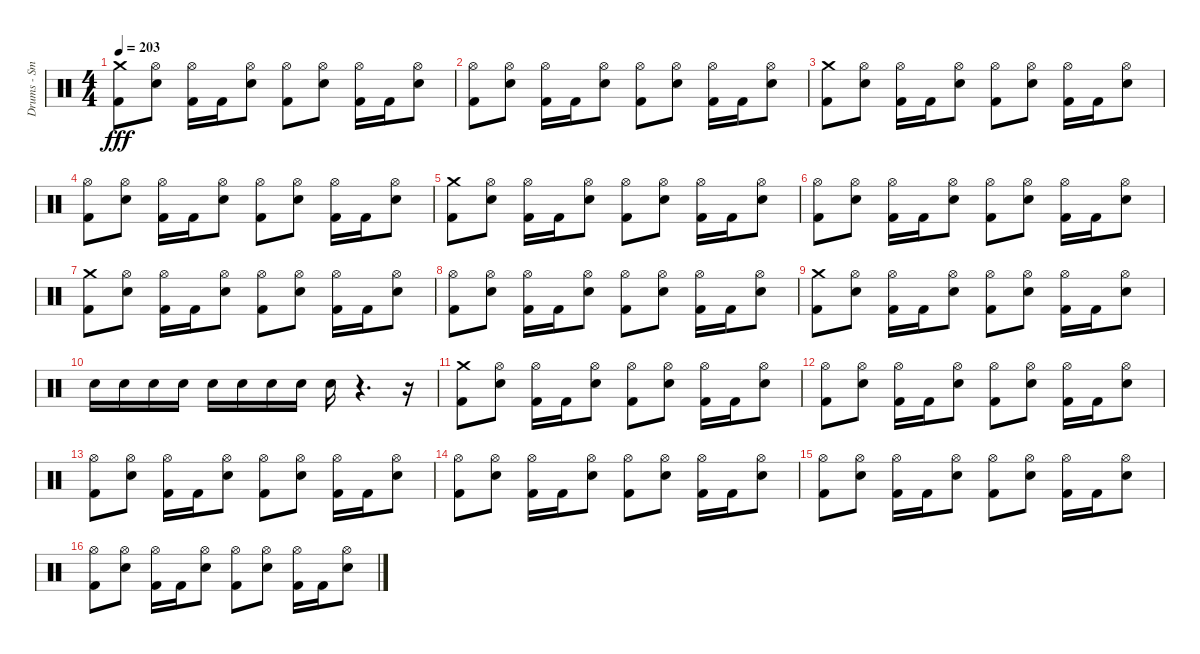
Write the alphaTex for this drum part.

\track ("Drums - Smelly" "Drums - Sm") {instrument percussion}
\staff {score}
\articulation defaults
\ts (4 4)
\tempo 203
\clef neutral
\ks c
("Kick (hit) 2" "Crash medium (hit)").8{dy fff} ("Electric Snare (hit)" "Hi-Hat (open)").8 ("Kick (hit) 2" "Hi-Hat (open)").16 "Kick (hit) 2".16 ("Electric Snare (hit)" "Hi-Hat (open)").8 ("Kick (hit) 2" "Hi-Hat (open)").8 ("Electric Snare (hit)" "Hi-Hat (open)").8 ("Kick (hit) 2" "Hi-Hat (open)").16 "Kick (hit) 2".16 ("Electric Snare (hit)" "Hi-Hat (open)").8 |
("Kick (hit) 2" "Hi-Hat (open)").8 ("Electric Snare (hit)" "Hi-Hat (open)").8 ("Kick (hit) 2" "Hi-Hat (open)").16 "Kick (hit) 2".16 ("Electric Snare (hit)" "Hi-Hat (open)").8 ("Kick (hit) 2" "Hi-Hat (open)").8 ("Electric Snare (hit)" "Hi-Hat (open)").8 ("Kick (hit) 2" "Hi-Hat (open)").16 "Kick (hit) 2".16 ("Electric Snare (hit)" "Hi-Hat (open)").8 |
("Kick (hit) 2" "Crash medium (hit)").8 ("Electric Snare (hit)" "Hi-Hat (open)").8 ("Kick (hit) 2" "Hi-Hat (open)").16 "Kick (hit) 2".16 ("Electric Snare (hit)" "Hi-Hat (open)").8 ("Kick (hit) 2" "Hi-Hat (open)").8 ("Electric Snare (hit)" "Hi-Hat (open)").8 ("Kick (hit) 2" "Hi-Hat (open)").16 "Kick (hit) 2".16 ("Electric Snare (hit)" "Hi-Hat (open)").8 |
("Kick (hit) 2" "Hi-Hat (open)").8 ("Electric Snare (hit)" "Hi-Hat (open)").8 ("Kick (hit) 2" "Hi-Hat (open)").16 "Kick (hit) 2".16 ("Electric Snare (hit)" "Hi-Hat (open)").8 ("Kick (hit) 2" "Hi-Hat (open)").8 ("Electric Snare (hit)" "Hi-Hat (open)").8 ("Kick (hit) 2" "Hi-Hat (open)").16 "Kick (hit) 2".16 ("Electric Snare (hit)" "Hi-Hat (open)").8 |
("Kick (hit) 2" "Crash medium (hit)").8 ("Electric Snare (hit)" "Hi-Hat (open)").8 ("Kick (hit) 2" "Hi-Hat (open)").16 "Kick (hit) 2".16 ("Electric Snare (hit)" "Hi-Hat (open)").8 ("Kick (hit) 2" "Hi-Hat (open)").8 ("Electric Snare (hit)" "Hi-Hat (open)").8 ("Kick (hit) 2" "Hi-Hat (open)").16 "Kick (hit) 2".16 ("Electric Snare (hit)" "Hi-Hat (open)").8 |
("Kick (hit) 2" "Hi-Hat (open)").8 ("Electric Snare (hit)" "Hi-Hat (open)").8 ("Kick (hit) 2" "Hi-Hat (open)").16 "Kick (hit) 2".16 ("Electric Snare (hit)" "Hi-Hat (open)").8 ("Kick (hit) 2" "Hi-Hat (open)").8 ("Electric Snare (hit)" "Hi-Hat (open)").8 ("Kick (hit) 2" "Hi-Hat (open)").16 "Kick (hit) 2".16 ("Electric Snare (hit)" "Hi-Hat (open)").8 |
("Kick (hit) 2" "Crash medium (hit)").8 ("Electric Snare (hit)" "Hi-Hat (open)").8 ("Kick (hit) 2" "Hi-Hat (open)").16 "Kick (hit) 2".16 ("Electric Snare (hit)" "Hi-Hat (open)").8 ("Kick (hit) 2" "Hi-Hat (open)").8 ("Electric Snare (hit)" "Hi-Hat (open)").8 ("Kick (hit) 2" "Hi-Hat (open)").16 "Kick (hit) 2".16 ("Electric Snare (hit)" "Hi-Hat (open)").8 |
("Kick (hit) 2" "Hi-Hat (open)").8 ("Electric Snare (hit)" "Hi-Hat (open)").8 ("Kick (hit) 2" "Hi-Hat (open)").16 "Kick (hit) 2".16 ("Electric Snare (hit)" "Hi-Hat (open)").8 ("Kick (hit) 2" "Hi-Hat (open)").8 ("Electric Snare (hit)" "Hi-Hat (open)").8 ("Kick (hit) 2" "Hi-Hat (open)").16 "Kick (hit) 2".16 ("Electric Snare (hit)" "Hi-Hat (open)").8 |
("Kick (hit) 2" "Crash medium (hit)").8 ("Electric Snare (hit)" "Hi-Hat (open)").8 ("Kick (hit) 2" "Hi-Hat (open)").16 "Kick (hit) 2".16 ("Electric Snare (hit)" "Hi-Hat (open)").8 ("Kick (hit) 2" "Hi-Hat (open)").8 ("Electric Snare (hit)" "Hi-Hat (open)").8 ("Kick (hit) 2" "Hi-Hat (open)").16 "Kick (hit) 2".16 ("Electric Snare (hit)" "Hi-Hat (open)").8 |
"Electric Snare (hit)".16 "Electric Snare (hit)".16 "Electric Snare (hit)".16 "Electric Snare (hit)".16 "Electric Snare (hit)".16 "Electric Snare (hit)".16 "Electric Snare (hit)".16 "Electric Snare (hit)".16 "Electric Snare (hit)".16 r.4{d} r.16 |
("Kick (hit) 2" "Crash medium (hit)").8 ("Electric Snare (hit)" "Hi-Hat (open)").8 ("Kick (hit) 2" "Hi-Hat (open)").16 "Kick (hit) 2".16 ("Electric Snare (hit)" "Hi-Hat (open)").8 ("Kick (hit) 2" "Hi-Hat (open)").8 ("Electric Snare (hit)" "Hi-Hat (open)").8 ("Kick (hit) 2" "Hi-Hat (open)").16 "Kick (hit) 2".16 ("Electric Snare (hit)" "Hi-Hat (open)").8 |
("Kick (hit) 2" "Hi-Hat (open)").8 ("Electric Snare (hit)" "Hi-Hat (open)").8 ("Kick (hit) 2" "Hi-Hat (open)").16 "Kick (hit) 2".16 ("Electric Snare (hit)" "Hi-Hat (open)").8 ("Kick (hit) 2" "Hi-Hat (open)").8 ("Electric Snare (hit)" "Hi-Hat (open)").8 ("Kick (hit) 2" "Hi-Hat (open)").16 "Kick (hit) 2".16 ("Electric Snare (hit)" "Hi-Hat (open)").8 |
("Kick (hit) 2" "Hi-Hat (open)").8 ("Electric Snare (hit)" "Hi-Hat (open)").8 ("Kick (hit) 2" "Hi-Hat (open)").16 "Kick (hit) 2".16 ("Electric Snare (hit)" "Hi-Hat (open)").8 ("Kick (hit) 2" "Hi-Hat (open)").8 ("Electric Snare (hit)" "Hi-Hat (open)").8 ("Kick (hit) 2" "Hi-Hat (open)").16 "Kick (hit) 2".16 ("Electric Snare (hit)" "Hi-Hat (open)").8 |
("Kick (hit) 2" "Hi-Hat (open)").8 ("Electric Snare (hit)" "Hi-Hat (open)").8 ("Kick (hit) 2" "Hi-Hat (open)").16 "Kick (hit) 2".16 ("Electric Snare (hit)" "Hi-Hat (open)").8 ("Kick (hit) 2" "Hi-Hat (open)").8 ("Electric Snare (hit)" "Hi-Hat (open)").8 ("Kick (hit) 2" "Hi-Hat (open)").16 "Kick (hit) 2".16 ("Electric Snare (hit)" "Hi-Hat (open)").8 |
("Kick (hit) 2" "Hi-Hat (open)").8 ("Electric Snare (hit)" "Hi-Hat (open)").8 ("Kick (hit) 2" "Hi-Hat (open)").16 "Kick (hit) 2".16 ("Electric Snare (hit)" "Hi-Hat (open)").8 ("Kick (hit) 2" "Hi-Hat (open)").8 ("Electric Snare (hit)" "Hi-Hat (open)").8 ("Kick (hit) 2" "Hi-Hat (open)").16 "Kick (hit) 2".16 ("Electric Snare (hit)" "Hi-Hat (open)").8 |
("Kick (hit) 2" "Hi-Hat (open)").8 ("Electric Snare (hit)" "Hi-Hat (open)").8 ("Kick (hit) 2" "Hi-Hat (open)").16 "Kick (hit) 2".16 ("Electric Snare (hit)" "Hi-Hat (open)").8 ("Kick (hit) 2" "Hi-Hat (open)").8 ("Electric Snare (hit)" "Hi-Hat (open)").8 ("Kick (hit) 2" "Hi-Hat (open)").16 "Kick (hit) 2".16 ("Electric Snare (hit)" "Hi-Hat (open)").8
